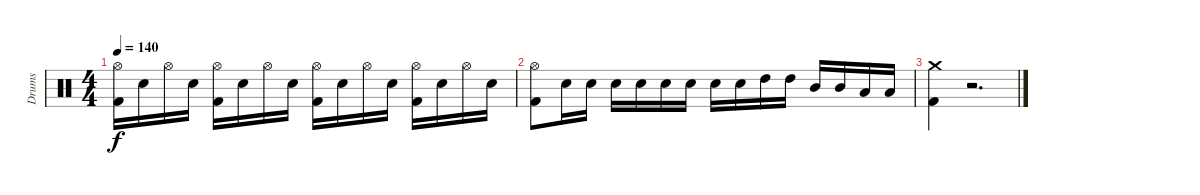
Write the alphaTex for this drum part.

\track ("Drums" "Drums") {instrument percussion}
\staff {score}
\articulation defaults
\ts (4 4)
\tempo 140
\clef neutral
\ks c
("Hi-Hat (open)" "Kick (hit) 2").16{dy f} "Electric Snare (hit)".16 "Hi-Hat (open)".16 "Electric Snare (hit)".16 ("Hi-Hat (open)" "Kick (hit) 2").16 "Electric Snare (hit)".16 "Hi-Hat (open)".16 "Electric Snare (hit)".16 ("Hi-Hat (open)" "Kick (hit) 2").16 "Electric Snare (hit)".16 "Hi-Hat (open)".16 "Electric Snare (hit)".16 ("Hi-Hat (open)" "Kick (hit) 2").16 "Electric Snare (hit)".16 "Hi-Hat (open)".16 "Electric Snare (hit)".16 |
("Hi-Hat (open)" "Kick (hit) 2").8 "Electric Snare (hit)".16 "Electric Snare (hit)".16 "Electric Snare (hit)".16 "Electric Snare (hit)".16 "Electric Snare (hit)".16 "Electric Snare (hit)".16 "Electric Snare (hit)".16 "Electric Snare (hit)".16 "High Tom (hit)".16 "High Tom (hit)".16 "Mid Tom (hit)".16 "Mid Tom (hit)".16 "Low Tom (hit)".16 "Low Tom (hit)".16 |
("Crash medium (hit)" "Kick (hit) 2").4 r.2{d}
